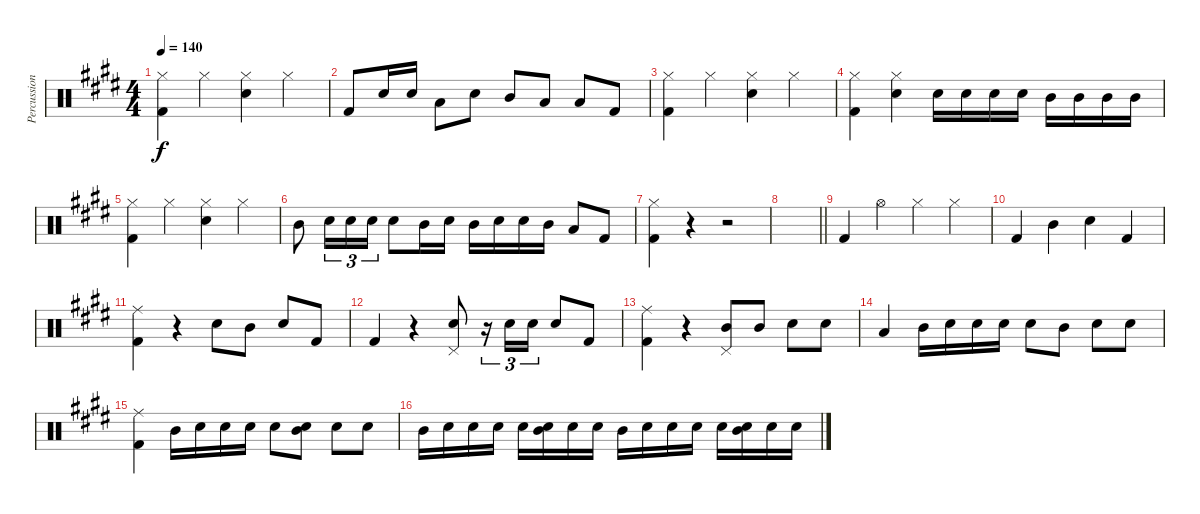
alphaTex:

\track ("Percussion" "Percussion") {instrument percussion}
\staff {score}
\articulation defaults
\ts (4 4)
\tempo 140
\clef neutral
\ks e
("Hi-Hat (closed)" "Kick (hit) 2").4{dy f} "Hi-Hat (closed)".4 ("Hi-Hat (closed)" "Snare (hit) 2").4 "Hi-Hat (closed)".4 |
"Kick (hit) 2".8 "Snare (hit) 2".16 "Snare (hit) 2".16 "Low Floor Tom (hit)".8 "Snare (hit) 2".8 "Mid Tom (hit)".8 "Low Tom (hit)".8 "Low Tom (hit)".8 "Kick (hit) 2".8 |
("Hi-Hat (closed)" "Kick (hit) 2").4 "Hi-Hat (closed)".4 ("Hi-Hat (closed)" "Snare (hit) 2").4 "Hi-Hat (closed)".4 |
("Hi-Hat (closed)" "Kick (hit) 2").4 ("Hi-Hat (closed)" "Snare (hit) 2").4 "Snare (hit) 2".16 "Snare (hit) 2".16 "Snare (hit) 2".16 "Snare (hit) 2".16 "Mid Tom (hit)".16 "Mid Tom (hit)".16 "Mid Tom (hit)".16 "Mid Tom (hit)".16 |
("Hi-Hat (closed)" "Kick (hit) 2").4 "Hi-Hat (closed)".4 ("Hi-Hat (closed)" "Snare (hit) 2").4 "Hi-Hat (closed)".4 |
"Mid Tom (hit)".8 "Snare (hit) 2".16{tu (3 2)} "Snare (hit) 2".16{tu (3 2)} "Snare (hit) 2".16{tu (3 2)} "Snare (hit) 2".8 "Mid Tom (hit)".16 "Snare (hit) 2".16 "Mid Tom (hit)".16 "Snare (hit) 2".16 "Snare (hit) 2".16 "Mid Tom (hit)".16 "Low Floor Tom (hit)".8 "Kick (hit) 2".8 |
("Hi-Hat (closed)" "Kick (hit) 2").4 r.4 r.2 |
\barLineRight lightlight
|
"Kick (hit) 2".4 "Hi-Hat (open)".4 "Hi-Hat (closed)".4 "Hi-Hat (closed)".4 |
"Kick (hit) 2".4 "Mid Tom (hit)".4 "Snare (hit) 2".4 "Kick (hit) 2".4 |
("Ride (middle)" "Kick (hit) 2").4 r.4 "Snare (hit) 2".8 "Mid Tom (hit)".8 "Snare (hit) 2".8 "Kick (hit) 2".8 |
"Kick (hit) 2".4 r.4 ("Snare (hit) 2" "Pedal Hi-Hat (hit)").8 r.16{tu (3 2)} "Snare (hit) 2".16{tu (3 2)} "Snare (hit) 2".16{tu (3 2)} "Snare (hit) 2".8 "Kick (hit) 2".8 |
("Ride (middle)" "Kick (hit) 2").4 r.4 ("Mid Tom (hit)" "Pedal Hi-Hat (hit)").8 "Mid Tom (hit)".8 "Snare (hit) 2".8 "Snare (hit) 2".8 |
"Low Floor Tom (hit)".4 "Mid Tom (hit)".16 "Snare (hit) 2".16 "Snare (hit) 2".16 "Snare (hit) 2".16 "Snare (hit) 2".8 "Mid Tom (hit)".8 "Snare (hit) 2".8 "Snare (hit) 2".8 |
("Ride (middle)" "Kick (hit) 2").4 "Mid Tom (hit)".16 "Snare (hit) 2".16 "Snare (hit) 2".16 "Snare (hit) 2".16 "Snare (hit) 2".8 ("Mid Tom (hit)" "Snare (hit) 2").8 "Snare (hit) 2".8 "Snare (hit) 2".8 |
"Mid Tom (hit)".16 "Snare (hit) 2".16 "Snare (hit) 2".16 "Snare (hit) 2".16 "Snare (hit) 2".16 ("Mid Tom (hit)" "Snare (hit) 2").16 "Snare (hit) 2".16 "Snare (hit) 2".16 "Mid Tom (hit)".16 "Snare (hit) 2".16 "Snare (hit) 2".16 "Snare (hit) 2".16 "Snare (hit) 2".16 ("Mid Tom (hit)" "Snare (hit) 2").16 "Snare (hit) 2".16 "Snare (hit) 2".16
